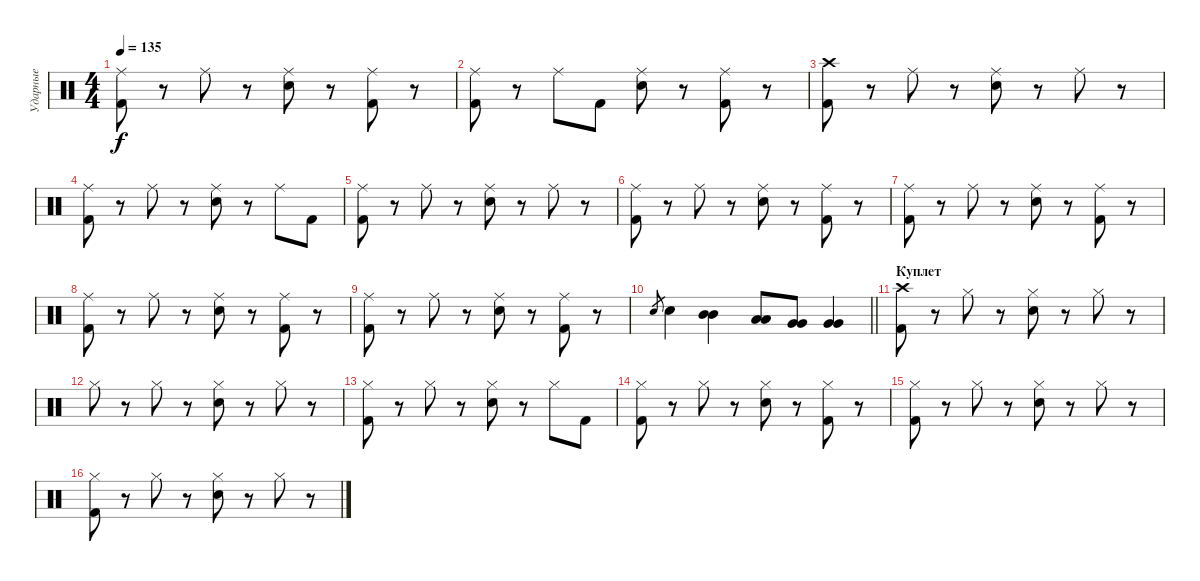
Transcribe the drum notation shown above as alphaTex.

\track ("Ударные" "Ударные") {instrument percussion}
\staff {score}
\articulation defaults
\ts (4 4)
\tempo 135
\clef neutral
\ks c
("Ride (middle)" "Kick (hit) 2").8{dy f} r.8 "Ride (middle)".8 r.8 ("Ride (middle)" "Electric Snare (hit)").8 r.8 ("Ride (middle)" "Kick (hit) 2").8 r.8 |
("Ride (middle)" "Kick (hit) 2").8 r.8 "Ride (middle)".8 "Kick (hit) 2".8 ("Ride (middle)" "Electric Snare (hit)").8 r.8 ("Ride (middle)" "Kick (hit) 2").8 r.8 |
("Kick (hit) 2" "Crash high (hit)").8 r.8 "Ride (middle)".8 r.8 ("Ride (middle)" "Electric Snare (hit)").8 r.8 "Ride (middle)".8 r.8 |
("Ride (middle)" "Kick (hit) 2").8 r.8 "Ride (middle)".8 r.8 ("Ride (middle)" "Electric Snare (hit)").8 r.8 "Ride (middle)".8 "Kick (hit) 2".8 |
("Ride (middle)" "Kick (hit) 2").8 r.8 "Ride (middle)".8 r.8 ("Ride (middle)" "Electric Snare (hit)").8 r.8 "Ride (middle)".8 r.8 |
("Ride (middle)" "Kick (hit) 2").8 r.8 "Ride (middle)".8 r.8 ("Ride (middle)" "Electric Snare (hit)").8 r.8 ("Ride (middle)" "Kick (hit) 2").8 r.8 |
("Ride (middle)" "Kick (hit) 2").8 r.8 "Ride (middle)".8 r.8 ("Ride (middle)" "Electric Snare (hit)").8 r.8 ("Ride (middle)" "Kick (hit) 2").8 r.8 |
("Ride (middle)" "Kick (hit) 2").8 r.8 "Ride (middle)".8 r.8 ("Ride (middle)" "Electric Snare (hit)").8 r.8 ("Ride (middle)" "Kick (hit) 2").8 r.8 |
("Ride (middle)" "Kick (hit) 2").8 r.8 "Ride (middle)".8 r.8 ("Ride (middle)" "Electric Snare (hit)").8 r.8 ("Ride (middle)" "Kick (hit) 2").8 r.8 |
\barLineRight lightlight "Electric Snare (hit)".8{gr} "Electric Snare (hit)".4
("Mid Tom (hit)" "Mid Tom (hit)").4 ("Low Tom (hit)" "Low Tom (hit)").8 ("Very Low Tom (hit)" "Very Low Tom (hit)").8 ("Very Low Tom (hit)" "Very Low Tom (hit)").4 |
\section ("" "Куплет")
("Kick (hit) 2" "Crash high (hit)").8 r.8 "Hi-Hat (closed)".8 r.8 ("Hi-Hat (closed)" "Electric Snare (hit)").8 r.8 "Hi-Hat (closed)".8 r.8 |
"Hi-Hat (closed)".8 r.8 "Hi-Hat (closed)".8 r.8 ("Hi-Hat (closed)" "Electric Snare (hit)").8 r.8 "Hi-Hat (closed)".8 r.8 |
("Hi-Hat (closed)" "Kick (hit) 2").8 r.8 "Hi-Hat (closed)".8 r.8 ("Hi-Hat (closed)" "Electric Snare (hit)").8 r.8 "Hi-Hat (closed)".8 "Kick (hit) 2".8 |
("Hi-Hat (closed)" "Kick (hit) 2").8 r.8 "Hi-Hat (closed)".8 r.8 ("Hi-Hat (closed)" "Electric Snare (hit)").8 r.8 ("Hi-Hat (closed)" "Kick (hit) 2").8 r.8 |
("Hi-Hat (closed)" "Kick (hit) 2").8 r.8 "Hi-Hat (closed)".8 r.8 ("Hi-Hat (closed)" "Electric Snare (hit)").8 r.8 "Hi-Hat (closed)".8 r.8 |
("Hi-Hat (closed)" "Kick (hit) 2").8 r.8 "Hi-Hat (closed)".8 r.8 ("Hi-Hat (closed)" "Electric Snare (hit)").8 r.8 "Hi-Hat (closed)".8 r.8
